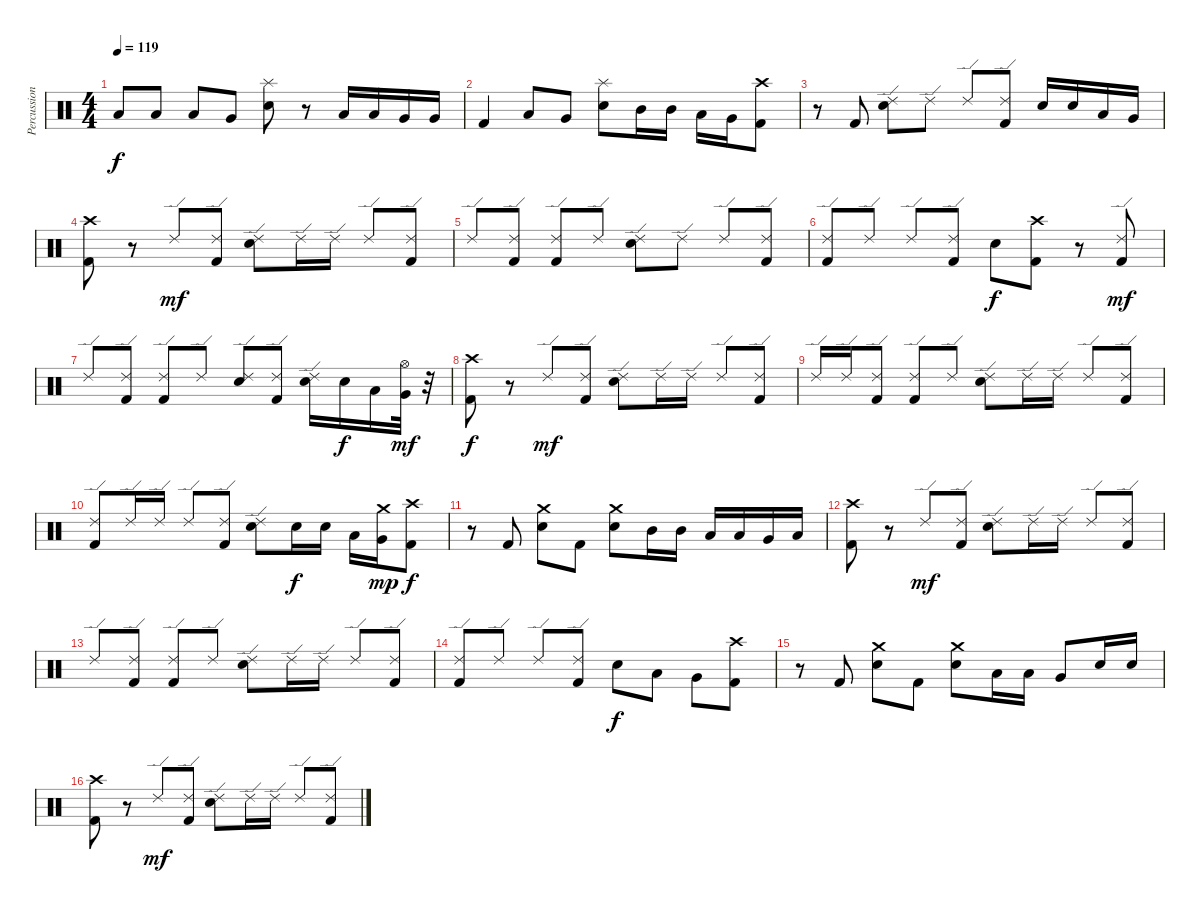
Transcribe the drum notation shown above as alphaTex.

\track ("Percussion" "Percussion") {instrument percussion}
\staff {score}
\articulation defaults
\ts (4 4)
\tempo 119
\clef neutral
\ks c "Low Floor Tom (hit)".8{dy f} "Low Tom (hit)".8 "Low Floor Tom (hit)".8 "Very Low Tom (hit)".8
("Splash (hit)" "Snare (hit) 2").8 r.8 "Low Tom (hit)".16 "Low Tom (hit)".16 "Very Low Tom (hit)".16 "Very Low Tom (hit)".16 |
"Kick (hit) 2".4 "Low Tom (hit)".8 "Very Low Tom (hit)".8 ("Splash (hit)" "Snare (hit) 2").8 "Mid Tom (hit)".16 "Mid Tom (hit)".16 "Low Tom (hit)".16 "Very Low Tom (hit)".16 ("Crash high (hit)" "Kick (hit) 2").8 |
r.8 "Kick (hit) 2".8 ("Ride (edge) 2" "Snare (hit) 2").8 "Ride (edge) 2".8 "Ride (edge) 2".8 ("Ride (edge) 2" "Kick (hit) 2").8 "Snare (hit) 2".16 "Snare (hit) 2".16 "Low Tom (hit)".16 "Very Low Tom (hit)".16 |
("Crash high (hit)" "Kick (hit) 2").8 r.8 "Ride (edge) 2".8{dy mf} ("Ride (edge) 2" "Kick (hit) 2").8 ("Ride (edge) 2" "Snare (hit) 2").8 "Ride (edge) 2".16 "Ride (edge) 2".16 "Ride (edge) 2".8 ("Ride (edge) 2" "Kick (hit) 2").8 |
"Ride (edge) 2".8 ("Ride (edge) 2" "Kick (hit) 2").8 ("Ride (edge) 2" "Kick (hit) 2").8 "Ride (edge) 2".8 ("Ride (edge) 2" "Snare (hit) 2").8 "Ride (edge) 2".8 "Ride (edge) 2".8 ("Ride (edge) 2" "Kick (hit) 2").8 |
("Ride (edge) 2" "Kick (hit) 2").8 "Ride (edge) 2".8 "Ride (edge) 2".8 ("Ride (edge) 2" "Kick (hit) 2").8 "Snare (hit) 2".8{dy f} ("Crash high (hit)" "Kick (hit) 2").8 r.8 ("Ride (edge) 2" "Kick (hit) 2").8{dy mf} |
"Ride (edge) 2".8 ("Ride (edge) 2" "Kick (hit) 2").8 ("Ride (edge) 2" "Kick (hit) 2").8 "Ride (edge) 2".8 ("Ride (edge) 2" "Snare (hit) 2").8 ("Ride (edge) 2" "Kick (hit) 2").8 ("Ride (edge) 2" "Snare (hit) 2").16 "Snare (hit) 2".16{dy f} "Low Tom (hit)".16 ("Hi-Hat (open)" "Very Low Tom (hit)").32{dy mf} r.32 |
("Crash high (hit)" "Kick (hit) 2").8{dy f} r.8 "Ride (edge) 2".8{dy mf} ("Ride (edge) 2" "Kick (hit) 2").8 ("Ride (edge) 2" "Snare (hit) 2").8 "Ride (edge) 2".16 "Ride (edge) 2".16 "Ride (edge) 2".8 ("Ride (edge) 2" "Kick (hit) 2").8 |
"Ride (edge) 2".16 "Ride (edge) 2".16 ("Ride (edge) 2" "Kick (hit) 2").8 ("Ride (edge) 2" "Kick (hit) 2").8 "Ride (edge) 2".8 ("Ride (edge) 2" "Snare (hit) 2").8 "Ride (edge) 2".16 "Ride (edge) 2".16 "Ride (edge) 2".8 ("Ride (edge) 2" "Kick (hit) 2").8 |
("Ride (edge) 2" "Kick (hit) 2").8 "Ride (edge) 2".16 "Ride (edge) 2".16 "Ride (edge) 2".8 ("Ride (edge) 2" "Kick (hit) 2").8 ("Ride (edge) 2" "Snare (hit) 2").8 "Snare (hit) 2".16{dy f} "Snare (hit) 2".16 "Low Tom (hit)".16 ("Crash medium (hit)" "Very Low Tom (hit)").16{dy mp} ("Crash high (hit)" "Kick (hit) 2").8{dy f} |
r.8 "Kick (hit) 2".8 ("Crash medium (hit)" "Snare (hit) 2").8 "Kick (hit) 2".8 ("Crash medium (hit)" "Snare (hit) 2").8 "Mid Tom (hit)".16 "Mid Tom (hit)".16 "Low Tom (hit)".16 "Low Tom (hit)".16 "Very Low Tom (hit)".16 "Low Floor Tom (hit)".16 |
("Crash high (hit)" "Kick (hit) 2").8 r.8 "Ride (edge) 2".8{dy mf} ("Ride (edge) 2" "Kick (hit) 2").8 ("Ride (edge) 2" "Snare (hit) 2").8 "Ride (edge) 2".16 "Ride (edge) 2".16 "Ride (edge) 2".8 ("Ride (edge) 2" "Kick (hit) 2").8 |
"Ride (edge) 2".8 ("Ride (edge) 2" "Kick (hit) 2").8 ("Ride (edge) 2" "Kick (hit) 2").8 "Ride (edge) 2".8 ("Ride (edge) 2" "Snare (hit) 2").8 "Ride (edge) 2".16 "Ride (edge) 2".16 "Ride (edge) 2".8 ("Ride (edge) 2" "Kick (hit) 2").8 |
("Ride (edge) 2" "Kick (hit) 2").8 "Ride (edge) 2".8 "Ride (edge) 2".8 ("Ride (edge) 2" "Kick (hit) 2").8 "Snare (hit) 2".8{dy f} "Low Tom (hit)".8 "Very Low Tom (hit)".8 ("Crash high (hit)" "Kick (hit) 2").8 |
r.8 "Kick (hit) 2".8 ("Crash medium (hit)" "Snare (hit) 2").8 "Kick (hit) 2".8 ("Crash medium (hit)" "Snare (hit) 2").8 "Low Tom (hit)".16 "Low Tom (hit)".16 "Very Low Tom (hit)".8 "Snare (hit) 2".16 "Snare (hit) 2".16 |
("Crash high (hit)" "Kick (hit) 2").8 r.8 "Ride (edge) 2".8{dy mf} ("Ride (edge) 2" "Kick (hit) 2").8 ("Ride (edge) 2" "Snare (hit) 2").8 "Ride (edge) 2".16 "Ride (edge) 2".16 "Ride (edge) 2".8 ("Ride (edge) 2" "Kick (hit) 2").8
